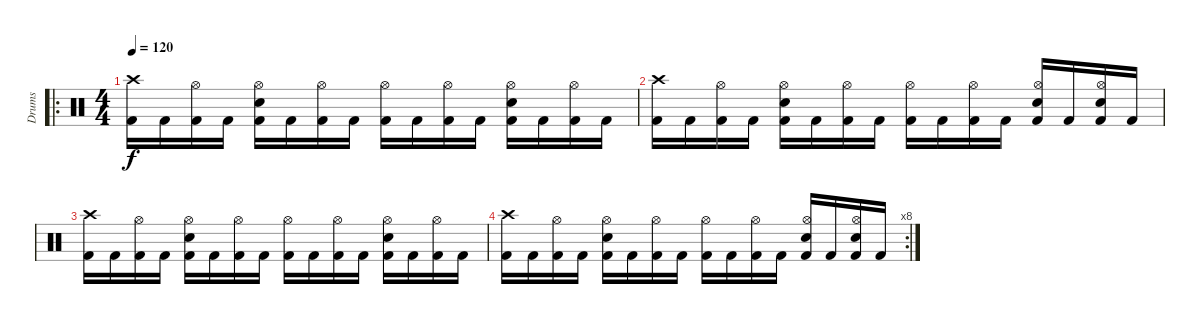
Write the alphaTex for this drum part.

\track ("Drums" "Drums") {instrument percussion}
\staff {score}
\articulation defaults
\ro
\ts (4 4)
\tempo 120
\clef neutral
\ks c
("Crash high (hit)" "Kick (hit) 2").16{dy f} "Kick (hit) 2".16 ("Hi-Hat (open)" "Kick (hit) 2").16 "Kick (hit) 2".16 ("Hi-Hat (open)" "Snare (hit) 2" "Kick (hit) 2").16 "Kick (hit) 2".16 ("Hi-Hat (open)" "Kick (hit) 2").16 "Kick (hit) 2".16 ("Hi-Hat (open)" "Kick (hit) 2").16 "Kick (hit) 2".16 ("Hi-Hat (open)" "Kick (hit) 2").16 "Kick (hit) 2".16 ("Hi-Hat (open)" "Snare (hit) 2" "Kick (hit) 2").16 "Kick (hit) 2".16 ("Hi-Hat (open)" "Kick (hit) 2").16 "Kick (hit) 2".16 |
("Crash high (hit)" "Kick (hit) 2").16 "Kick (hit) 2".16 ("Hi-Hat (open)" "Kick (hit) 2").16 "Kick (hit) 2".16 ("Hi-Hat (open)" "Snare (hit) 2" "Kick (hit) 2").16 "Kick (hit) 2".16 ("Hi-Hat (open)" "Kick (hit) 2").16 "Kick (hit) 2".16 ("Hi-Hat (open)" "Kick (hit) 2").16 "Kick (hit) 2".16 ("Hi-Hat (open)" "Kick (hit) 2").16 "Kick (hit) 2".16 ("Hi-Hat (open)" "Snare (hit) 2" "Kick (hit) 2").16 "Kick (hit) 2".16 ("Hi-Hat (open)" "Snare (hit) 2" "Kick (hit) 2").16 "Kick (hit) 2".16 |
("Crash high (hit)" "Kick (hit) 2").16 "Kick (hit) 2".16 ("Hi-Hat (open)" "Kick (hit) 2").16 "Kick (hit) 2".16 ("Hi-Hat (open)" "Snare (hit) 2" "Kick (hit) 2").16 "Kick (hit) 2".16 ("Hi-Hat (open)" "Kick (hit) 2").16 "Kick (hit) 2".16 ("Hi-Hat (open)" "Kick (hit) 2").16 "Kick (hit) 2".16 ("Hi-Hat (open)" "Kick (hit) 2").16 "Kick (hit) 2".16 ("Hi-Hat (open)" "Snare (hit) 2" "Kick (hit) 2").16 "Kick (hit) 2".16 ("Hi-Hat (open)" "Kick (hit) 2").16 "Kick (hit) 2".16 |
\rc 8
("Crash high (hit)" "Kick (hit) 2").16 "Kick (hit) 2".16 ("Hi-Hat (open)" "Kick (hit) 2").16 "Kick (hit) 2".16 ("Hi-Hat (open)" "Snare (hit) 2" "Kick (hit) 2").16 "Kick (hit) 2".16 ("Hi-Hat (open)" "Kick (hit) 2").16 "Kick (hit) 2".16 ("Hi-Hat (open)" "Kick (hit) 2").16 "Kick (hit) 2".16 ("Hi-Hat (open)" "Kick (hit) 2").16 "Kick (hit) 2".16 ("Hi-Hat (open)" "Snare (hit) 2" "Kick (hit) 2").16 "Kick (hit) 2".16 ("Hi-Hat (open)" "Snare (hit) 2" "Kick (hit) 2").16 "Kick (hit) 2".16
